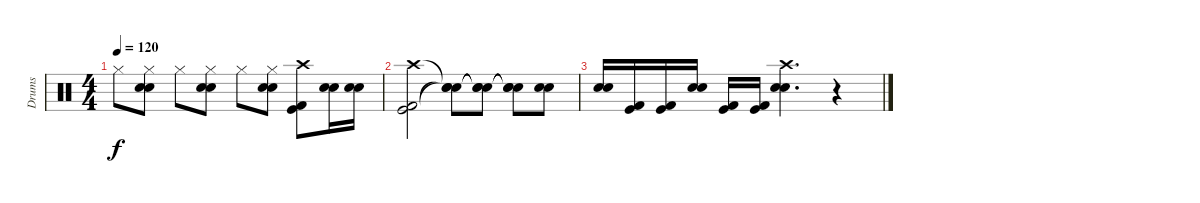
\track ("Drums" "Drums") {instrument percussion}
\staff {score}
\articulation defaults
\ts (4 4)
\tempo 120
\clef neutral
\ks c "Hi-Hat (closed)".8{dy f}
("Hi-Hat (closed)" "Electric Snare (hit)" "Snare (hit) 2").8 "Hi-Hat (closed)".8 ("Hi-Hat (closed)" "Electric Snare (hit)" "Snare (hit) 2").8 "Hi-Hat (closed)".8 ("Hi-Hat (closed)" "Electric Snare (hit)" "Snare (hit) 2").8 ("Kick (hit) 2" "Kick (hit)" "Crash high (hit)").8 ("Electric Snare (hit)" "Snare (hit) 2").16 ("Electric Snare (hit)" "Snare (hit) 2").16 |
("Kick (hit) 2" "Kick (hit)" "Crash high (hit)").2 ("Electric Snare (hit)"{t} "Snare (hit) 2"{t} "Snare (hit)"{t}).8 ("Snare (hit)"{t} "Snare (hit)"{t} "Snare (hit)"{t}).8 ("Snare (hit)"{t} "Snare (hit)"{t} "Snare (hit)"{t}).8 ("Electric Snare (hit)" "Snare (hit) 2").8 |
("Electric Snare (hit)" "Snare (hit) 2").16 ("Kick (hit) 2" "Kick (hit)").16 ("Kick (hit) 2" "Kick (hit)").16 ("Electric Snare (hit)" "Snare (hit) 2").16 ("Kick (hit) 2" "Kick (hit)").16 ("Kick (hit) 2" "Kick (hit)").16 ("Electric Snare (hit)" "Snare (hit) 2" "Crash high (hit)").4{d} r.4
